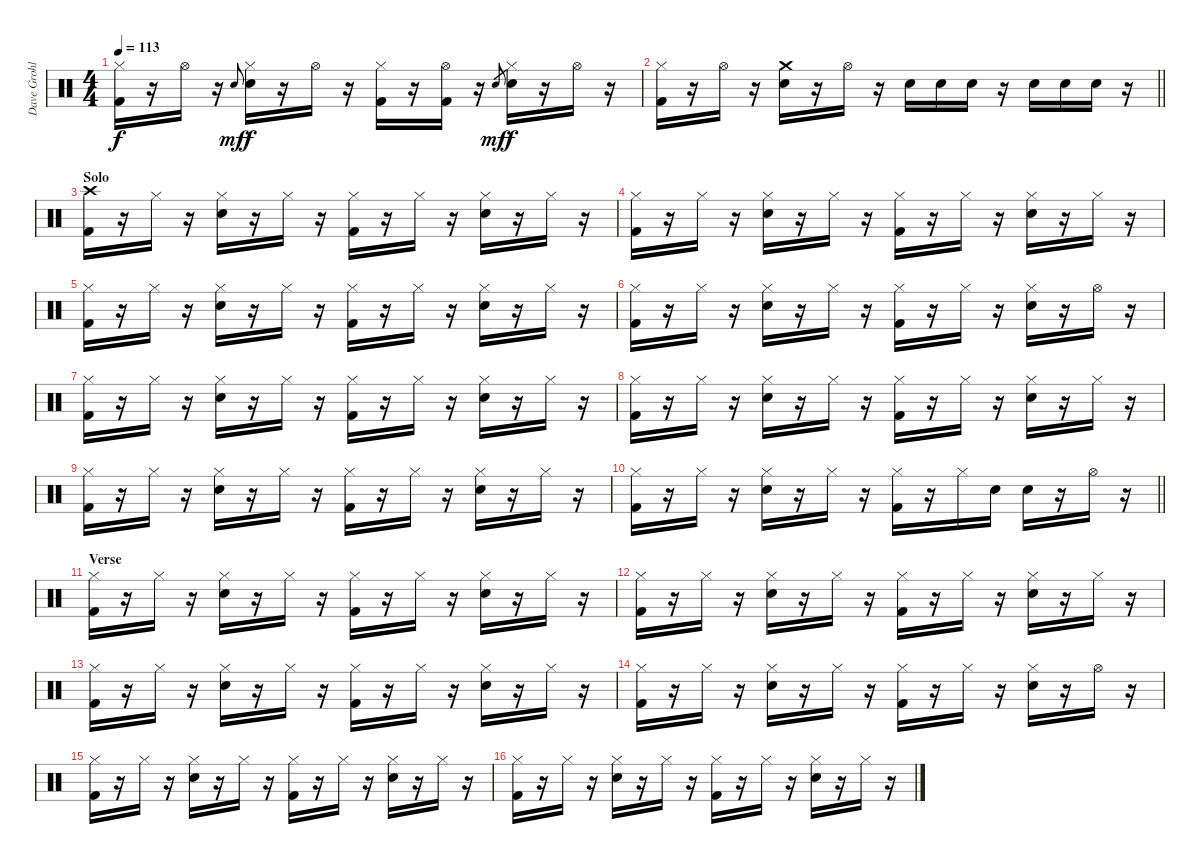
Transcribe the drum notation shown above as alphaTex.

\track ("Dave Grohl" "Dave Grohl") {instrument percussion}
\staff {score}
\articulation defaults
\ts (4 4)
\tempo 113
\clef neutral
\ks c
("Hi-Hat (closed)" "Kick (hit) 2").16{dy f} r.16 "Hi-Hat (open)".16 r.16 "Electric Snare (hit)".8{gr onbeat dy mf} ("Hi-Hat (closed)" "Electric Snare (hit)").16{dy f} r.16 "Hi-Hat (open)".16 r.16 ("Hi-Hat (closed)" "Kick (hit) 2").16 r.16 ("Hi-Hat (open)" "Kick (hit) 2").16 r.16 "Electric Snare (hit)".8{gr dy mf} ("Hi-Hat (closed)" "Electric Snare (hit)").16{dy f} r.16 "Hi-Hat (open)".16 r.16 |
\barLineRight lightlight
("Hi-Hat (closed)" "Kick (hit) 2").16 r.16 "Hi-Hat (open)".16 r.16 ("Crash medium (hit)" "Electric Snare (hit)").16 r.16 "Hi-Hat (open)".16 r.16 "Electric Snare (hit)".16 "Electric Snare (hit)".16 "Electric Snare (hit)".16 r.16 "Electric Snare (hit)".16 "Electric Snare (hit)".16 "Electric Snare (hit)".16 r.16 |
\section ("" "Solo")
("Crash high (hit)" "Kick (hit) 2").16 r.16 "Hi-Hat (closed)".16 r.16 ("Hi-Hat (closed)" "Electric Snare (hit)").16 r.16 "Hi-Hat (closed)".16 r.16 ("Hi-Hat (closed)" "Kick (hit) 2").16 r.16 "Hi-Hat (closed)".16 r.16 ("Hi-Hat (closed)" "Electric Snare (hit)").16 r.16 "Hi-Hat (closed)".16 r.16 |
("Hi-Hat (closed)" "Kick (hit) 2").16 r.16 "Hi-Hat (closed)".16 r.16 ("Hi-Hat (closed)" "Electric Snare (hit)").16 r.16 "Hi-Hat (closed)".16 r.16 ("Hi-Hat (closed)" "Kick (hit) 2").16 r.16 "Hi-Hat (closed)".16 r.16 ("Hi-Hat (closed)" "Electric Snare (hit)").16 r.16 "Hi-Hat (closed)".16 r.16 |
("Hi-Hat (closed)" "Kick (hit) 2").16 r.16 "Hi-Hat (closed)".16 r.16 ("Hi-Hat (closed)" "Electric Snare (hit)").16 r.16 "Hi-Hat (closed)".16 r.16 ("Hi-Hat (closed)" "Kick (hit) 2").16 r.16 "Hi-Hat (closed)".16 r.16 ("Hi-Hat (closed)" "Electric Snare (hit)").16 r.16 "Hi-Hat (closed)".16 r.16 |
("Hi-Hat (closed)" "Kick (hit) 2").16 r.16 "Hi-Hat (closed)".16 r.16 ("Hi-Hat (closed)" "Electric Snare (hit)").16 r.16 "Hi-Hat (closed)".16 r.16 ("Hi-Hat (closed)" "Kick (hit) 2").16 r.16 "Hi-Hat (closed)".16 r.16 ("Hi-Hat (closed)" "Electric Snare (hit)").16 r.16 "Hi-Hat (open)".16 r.16 |
("Hi-Hat (closed)" "Kick (hit) 2").16 r.16 "Hi-Hat (closed)".16 r.16 ("Hi-Hat (closed)" "Electric Snare (hit)").16 r.16 "Hi-Hat (closed)".16 r.16 ("Hi-Hat (closed)" "Kick (hit) 2").16 r.16 "Hi-Hat (closed)".16 r.16 ("Hi-Hat (closed)" "Electric Snare (hit)").16 r.16 "Hi-Hat (closed)".16 r.16 |
("Hi-Hat (closed)" "Kick (hit) 2").16 r.16 "Hi-Hat (closed)".16 r.16 ("Hi-Hat (closed)" "Electric Snare (hit)").16 r.16 "Hi-Hat (closed)".16 r.16 ("Hi-Hat (closed)" "Kick (hit) 2").16 r.16 "Hi-Hat (closed)".16 r.16 ("Hi-Hat (closed)" "Electric Snare (hit)").16 r.16 "Hi-Hat (closed)".16 r.16 |
("Hi-Hat (closed)" "Kick (hit) 2").16 r.16 "Hi-Hat (closed)".16 r.16 ("Hi-Hat (closed)" "Electric Snare (hit)").16 r.16 "Hi-Hat (closed)".16 r.16 ("Hi-Hat (closed)" "Kick (hit) 2").16 r.16 "Hi-Hat (closed)".16 r.16 ("Hi-Hat (closed)" "Electric Snare (hit)").16 r.16 "Hi-Hat (closed)".16 r.16 |
\barLineRight lightlight
("Hi-Hat (closed)" "Kick (hit) 2").16 r.16 "Hi-Hat (closed)".16 r.16 ("Hi-Hat (closed)" "Electric Snare (hit)").16 r.16 "Hi-Hat (closed)".16 r.16 ("Hi-Hat (closed)" "Kick (hit) 2").16 r.16 "Hi-Hat (closed)".16 "Electric Snare (hit)".16 "Electric Snare (hit)".16 r.16 "Hi-Hat (open)".16 r.16 |
\section ("" "Verse")
("Hi-Hat (closed)" "Kick (hit) 2").16 r.16 "Hi-Hat (closed)".16 r.16 ("Hi-Hat (closed)" "Electric Snare (hit)").16 r.16 "Hi-Hat (closed)".16 r.16 ("Hi-Hat (closed)" "Kick (hit) 2").16 r.16 "Hi-Hat (closed)".16 r.16 ("Hi-Hat (closed)" "Electric Snare (hit)").16 r.16 "Hi-Hat (closed)".16 r.16 |
("Hi-Hat (closed)" "Kick (hit) 2").16 r.16 "Hi-Hat (closed)".16 r.16 ("Hi-Hat (closed)" "Electric Snare (hit)").16 r.16 "Hi-Hat (closed)".16 r.16 ("Hi-Hat (closed)" "Kick (hit) 2").16 r.16 "Hi-Hat (closed)".16 r.16 ("Hi-Hat (closed)" "Electric Snare (hit)").16 r.16 "Hi-Hat (closed)".16 r.16 |
("Hi-Hat (closed)" "Kick (hit) 2").16 r.16 "Hi-Hat (closed)".16 r.16 ("Hi-Hat (closed)" "Electric Snare (hit)").16 r.16 "Hi-Hat (closed)".16 r.16 ("Hi-Hat (closed)" "Kick (hit) 2").16 r.16 "Hi-Hat (closed)".16 r.16 ("Hi-Hat (closed)" "Electric Snare (hit)").16 r.16 "Hi-Hat (closed)".16 r.16 |
("Hi-Hat (closed)" "Kick (hit) 2").16 r.16 "Hi-Hat (closed)".16 r.16 ("Hi-Hat (closed)" "Electric Snare (hit)").16 r.16 "Hi-Hat (closed)".16 r.16 ("Hi-Hat (closed)" "Kick (hit) 2").16 r.16 "Hi-Hat (closed)".16 r.16 ("Hi-Hat (closed)" "Electric Snare (hit)").16 r.16 "Hi-Hat (open)".16 r.16 |
("Hi-Hat (closed)" "Kick (hit) 2").16 r.16 "Hi-Hat (closed)".16 r.16 ("Hi-Hat (closed)" "Electric Snare (hit)").16 r.16 "Hi-Hat (closed)".16 r.16 ("Hi-Hat (closed)" "Kick (hit) 2").16 r.16 "Hi-Hat (closed)".16 r.16 ("Hi-Hat (closed)" "Electric Snare (hit)").16 r.16 "Hi-Hat (closed)".16 r.16 |
("Hi-Hat (closed)" "Kick (hit) 2").16 r.16 "Hi-Hat (closed)".16 r.16 ("Hi-Hat (closed)" "Electric Snare (hit)").16 r.16 "Hi-Hat (closed)".16 r.16 ("Hi-Hat (closed)" "Kick (hit) 2").16 r.16 "Hi-Hat (closed)".16 r.16 ("Hi-Hat (closed)" "Electric Snare (hit)").16 r.16 "Hi-Hat (closed)".16 r.16
